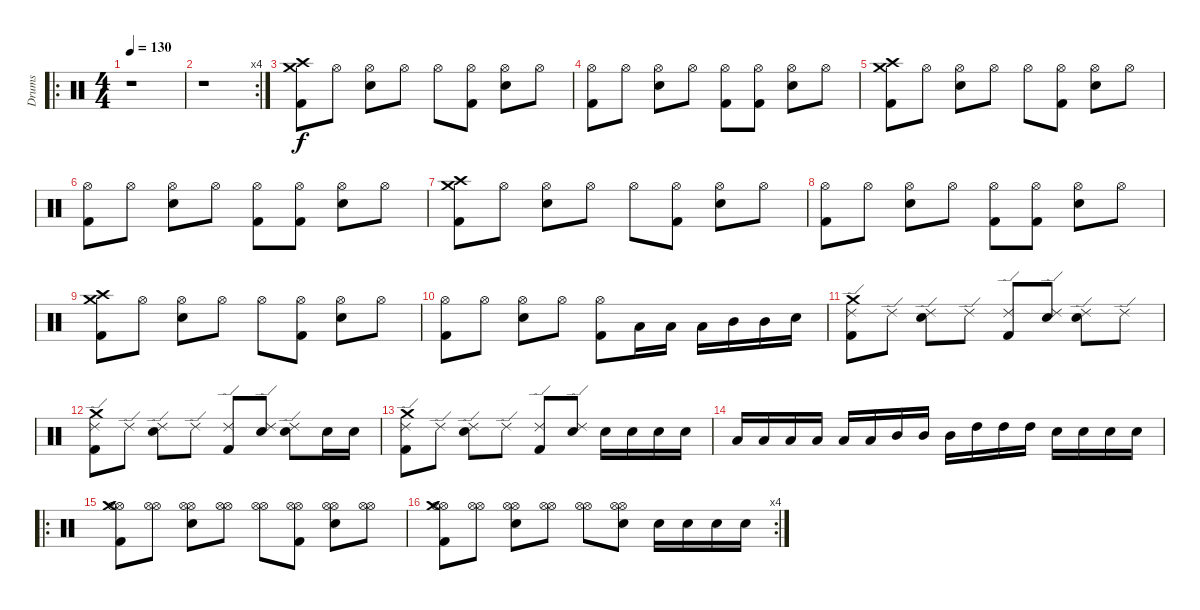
\track ("Drums" "Drums") {instrument percussion}
\staff {score}
\articulation defaults
\ro
\ts (4 4)
\tempo 130
\clef neutral
\ks c
r.1{dy f} |
\rc 4
r.1 |
("Crash medium (hit)" "Crash high (hit)" "Kick (hit) 2").8 "Hi-Hat (open)".8 ("Hi-Hat (open)" "Electric Snare (hit)").8 "Hi-Hat (open)".8 "Hi-Hat (open)".8 ("Hi-Hat (open)" "Kick (hit) 2").8 ("Hi-Hat (open)" "Electric Snare (hit)").8 "Hi-Hat (open)".8 |
("Hi-Hat (open)" "Kick (hit) 2").8 "Hi-Hat (open)".8 ("Hi-Hat (open)" "Electric Snare (hit)").8 "Hi-Hat (open)".8 ("Hi-Hat (open)" "Kick (hit) 2").8 ("Hi-Hat (open)" "Kick (hit) 2").8 ("Hi-Hat (open)" "Electric Snare (hit)").8 "Hi-Hat (open)".8 |
("Crash medium (hit)" "Crash high (hit)" "Kick (hit) 2").8 "Hi-Hat (open)".8 ("Hi-Hat (open)" "Electric Snare (hit)").8 "Hi-Hat (open)".8 "Hi-Hat (open)".8 ("Hi-Hat (open)" "Kick (hit) 2").8 ("Hi-Hat (open)" "Electric Snare (hit)").8 "Hi-Hat (open)".8 |
("Hi-Hat (open)" "Kick (hit) 2").8 "Hi-Hat (open)".8 ("Hi-Hat (open)" "Electric Snare (hit)").8 "Hi-Hat (open)".8 ("Hi-Hat (open)" "Kick (hit) 2").8 ("Hi-Hat (open)" "Kick (hit) 2").8 ("Hi-Hat (open)" "Electric Snare (hit)").8 "Hi-Hat (open)".8 |
("Crash medium (hit)" "Crash high (hit)" "Kick (hit) 2").8 "Hi-Hat (open)".8 ("Hi-Hat (open)" "Electric Snare (hit)").8 "Hi-Hat (open)".8 "Hi-Hat (open)".8 ("Hi-Hat (open)" "Kick (hit) 2").8 ("Hi-Hat (open)" "Electric Snare (hit)").8 "Hi-Hat (open)".8 |
("Hi-Hat (open)" "Kick (hit) 2").8 "Hi-Hat (open)".8 ("Hi-Hat (open)" "Electric Snare (hit)").8 "Hi-Hat (open)".8 ("Hi-Hat (open)" "Kick (hit) 2").8 ("Hi-Hat (open)" "Kick (hit) 2").8 ("Hi-Hat (open)" "Electric Snare (hit)").8 "Hi-Hat (open)".8 |
("Crash medium (hit)" "Crash high (hit)" "Kick (hit) 2").8 "Hi-Hat (open)".8 ("Hi-Hat (open)" "Electric Snare (hit)").8 "Hi-Hat (open)".8 "Hi-Hat (open)".8 ("Hi-Hat (open)" "Kick (hit) 2").8 ("Hi-Hat (open)" "Electric Snare (hit)").8 "Hi-Hat (open)".8 |
("Hi-Hat (open)" "Kick (hit) 2").8 "Hi-Hat (open)".8 ("Hi-Hat (open)" "Electric Snare (hit)").8 "Hi-Hat (open)".8 ("Hi-Hat (open)" "Kick (hit) 2").8 "Low Tom (hit)".16 "Low Tom (hit)".16 "Low Tom (hit)".16 "Mid Tom (hit)".16 "Mid Tom (hit)".16 "Electric Snare (hit)".16 |
("Ride (edge) 2" "Crash medium (hit)" "Kick (hit) 2").8 "Ride (edge) 2".8 ("Ride (edge) 2" "Electric Snare (hit)").8 "Ride (edge) 2".8 ("Ride (edge) 2" "Kick (hit) 2").8 ("Ride (edge) 2" "Electric Snare (hit)").8 ("Ride (edge) 2" "Electric Snare (hit)").8 "Ride (edge) 2".8 |
("Ride (edge) 2" "Crash medium (hit)" "Kick (hit) 2").8 "Ride (edge) 2".8 ("Ride (edge) 2" "Electric Snare (hit)").8 "Ride (edge) 2".8 ("Ride (edge) 2" "Kick (hit) 2").8 ("Ride (edge) 2" "Electric Snare (hit)").8 ("Ride (edge) 2" "Electric Snare (hit)").8 "Electric Snare (hit)".16 "Electric Snare (hit)".16 |
("Ride (edge) 2" "Crash medium (hit)" "Kick (hit) 2").8 "Ride (edge) 2".8 ("Ride (edge) 2" "Electric Snare (hit)").8 "Ride (edge) 2".8 ("Ride (edge) 2" "Kick (hit) 2").8 ("Ride (edge) 2" "Electric Snare (hit)").8 "Electric Snare (hit)".16 "Electric Snare (hit)".16 "Electric Snare (hit)".16 "Electric Snare (hit)".16 |
"Low Floor Tom (hit)".16 "Low Floor Tom (hit)".16 "Low Floor Tom (hit)".16 "Low Tom (hit)".16 "Low Tom (hit)".16 "Low Tom (hit)".16 "Mid Tom (hit)".16 "Mid Tom (hit)".16 "Mid Tom (hit)".16 "High Tom (hit)".16 "High Tom (hit)".16 "High Tom (hit)".16 "Electric Snare (hit)".16 "Electric Snare (hit)".16 "Electric Snare (hit)".16 "Electric Snare (hit)".16 |
\ro
("Hi-Hat (open)" "Hi-Hat (open)" "Crash medium (hit)" "Kick (hit) 2").8 ("Hi-Hat (open)" "Hi-Hat (open)").8 ("Hi-Hat (open)" "Hi-Hat (open)" "Electric Snare (hit)").8 ("Hi-Hat (open)" "Hi-Hat (open)").8 ("Hi-Hat (open)" "Hi-Hat (open)").8 ("Hi-Hat (open)" "Hi-Hat (open)" "Kick (hit) 2").8 ("Hi-Hat (open)" "Hi-Hat (open)" "Electric Snare (hit)").8 ("Hi-Hat (open)" "Hi-Hat (open)").8 |
\rc 4
("Hi-Hat (open)" "Hi-Hat (open)" "Crash medium (hit)" "Kick (hit) 2").8 ("Hi-Hat (open)" "Hi-Hat (open)").8 ("Hi-Hat (open)" "Hi-Hat (open)" "Electric Snare (hit)").8 ("Hi-Hat (open)" "Hi-Hat (open)").8 ("Hi-Hat (open)" "Hi-Hat (open)").8 ("Hi-Hat (open)" "Hi-Hat (open)" "Electric Snare (hit)").8 "Electric Snare (hit)".16 "Electric Snare (hit)".16 "Electric Snare (hit)".16 "Electric Snare (hit)".16
